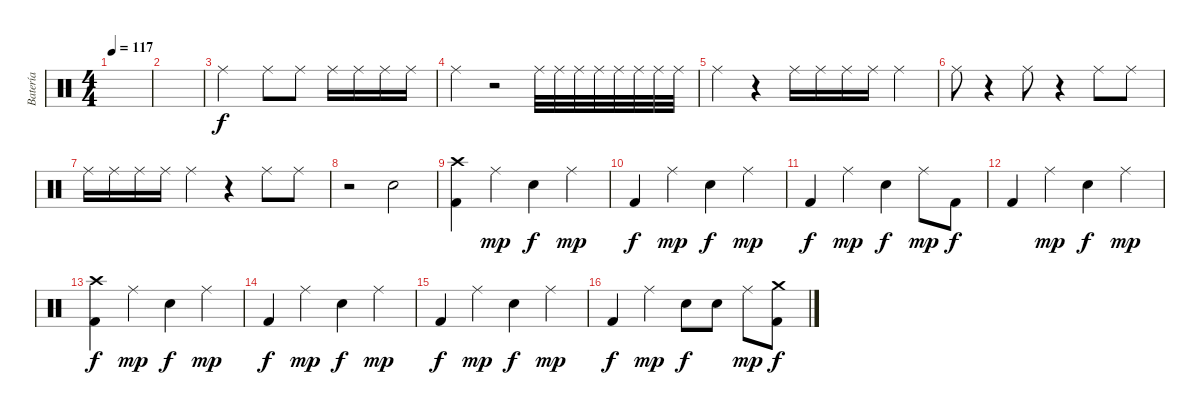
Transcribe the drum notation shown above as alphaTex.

\track ("Batería" "Batería") {instrument percussion}
\staff {score}
\articulation defaults
\ts (4 4)
\tempo 117
\clef neutral
\ks c
|
|
"Ride (middle)".2 "Ride (middle)".8 "Ride (middle)".8 "Ride (middle)".16 "Ride (middle)".16 "Ride (middle)".16 "Ride (middle)".16 |
"Ride (middle)".4 r.2 "Ride (middle)".32 "Ride (middle)".32 "Ride (middle)".32 "Ride (middle)".32 "Ride (middle)".32 "Ride (middle)".32 "Ride (middle)".32 "Ride (middle)".32 |
"Ride (middle)".4 r.4 "Ride (middle)".16 "Ride (middle)".16 "Ride (middle)".16 "Ride (middle)".16 "Ride (middle)".4 |
"Ride (middle)".8 r.4 "Ride (middle)".8 r.4 "Ride (middle)".8 "Ride (middle)".8 |
"Ride (middle)".16 "Ride (middle)".16 "Ride (middle)".16 "Ride (middle)".16 "Ride (middle)".4 r.4 "Ride (middle)".8 "Ride (middle)".8 |
r.2 "Snare (hit) 2".2 |
("Crash high (hit)" "Kick (hit) 2").4 "Ride (middle)".4{dy mp} "Snare (hit) 2".4{dy f} "Ride (middle)".4{dy mp} |
"Kick (hit) 2".4{dy f} "Ride (middle)".4{dy mp} "Snare (hit) 2".4{dy f} "Ride (middle)".4{dy mp} |
"Kick (hit) 2".4{dy f} "Ride (middle)".4{dy mp} "Snare (hit) 2".4{dy f} "Ride (middle)".8{dy mp} "Kick (hit) 2".8{dy f} |
"Kick (hit) 2".4 "Ride (middle)".4{dy mp} "Snare (hit) 2".4{dy f} "Ride (middle)".4{dy mp} |
("Crash high (hit)" "Kick (hit) 2").4{dy f} "Ride (middle)".4{dy mp} "Snare (hit) 2".4{dy f} "Ride (middle)".4{dy mp} |
"Kick (hit) 2".4{dy f} "Ride (middle)".4{dy mp} "Snare (hit) 2".4{dy f} "Ride (middle)".4{dy mp} |
"Kick (hit) 2".4{dy f} "Ride (middle)".4{dy mp} "Snare (hit) 2".4{dy f} "Ride (middle)".4{dy mp} |
"Kick (hit) 2".4{dy f} "Ride (middle)".4{dy mp} "Snare (hit) 2".8{dy f} "Snare (hit) 2".8 "Ride (middle)".8{dy mp} ("Crash medium (hit)" "Kick (hit) 2").8{dy f}
